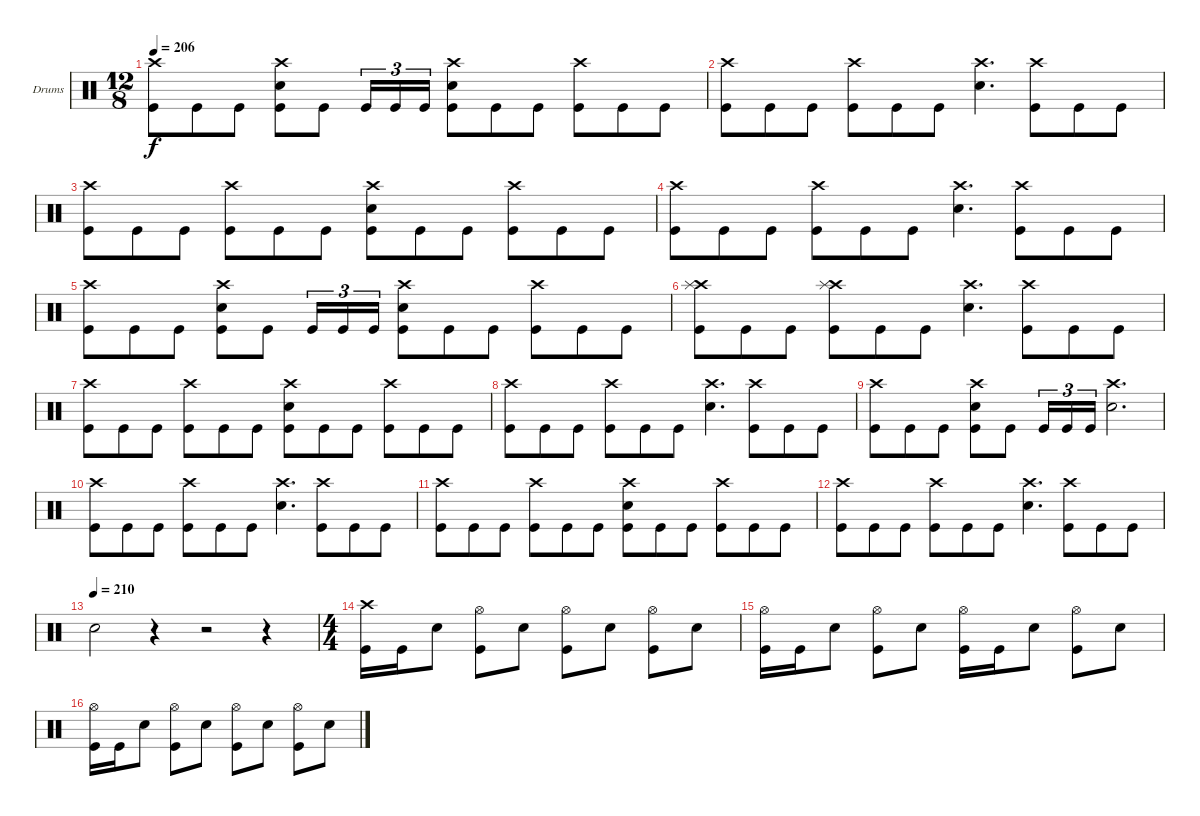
\bracketExtendMode groupsimilarinstruments
\firstSystemTrackNameOrientation horizontal
\otherSystemsTrackNameOrientation horizontal
\track ("Drumkit" "Drums") {instrument percussion}
\staff {score}
\articulation defaults
\ts (12 8)
\tempo 206
\clef neutral
\ks c
("Crash high (hit)" "Kick (hit)").8{dy f} "Kick (hit)".8 "Kick (hit)".8 ("Crash high (hit)" "Kick (hit)" "Snare (hit) 2").8 "Kick (hit)".8 "Kick (hit)".16{tu (3 2)} "Kick (hit)".16{tu (3 2)} "Kick (hit)".16{tu (3 2)} ("Crash high (hit)" "Kick (hit)" "Snare (hit) 2").8 "Kick (hit)".8 "Kick (hit)".8 ("Crash high (hit)" "Kick (hit)").8 "Kick (hit)".8 "Kick (hit)".8 |
("Crash high (hit)" "Kick (hit)").8 "Kick (hit)".8 "Kick (hit)".8 ("Crash high (hit)" "Kick (hit)").8 "Kick (hit)".8 "Kick (hit)".8 ("Crash high (hit)" "Snare (hit) 2").4{d} ("Crash high (hit)" "Kick (hit)").8 "Kick (hit)".8 "Kick (hit)".8 |
("Crash high (hit)" "Kick (hit)").8 "Kick (hit)".8 "Kick (hit)".8 ("Crash high (hit)" "Kick (hit)").8 "Kick (hit)".8 "Kick (hit)".8 ("Crash high (hit)" "Kick (hit)" "Snare (hit) 2").8 "Kick (hit)".8 "Kick (hit)".8 ("Crash high (hit)" "Kick (hit)").8 "Kick (hit)".8 "Kick (hit)".8 |
("Crash high (hit)" "Kick (hit)").8 "Kick (hit)".8 "Kick (hit)".8 ("Crash high (hit)" "Kick (hit)").8 "Kick (hit)".8 "Kick (hit)".8 ("Crash high (hit)" "Snare (hit) 2").4{d} ("Crash high (hit)" "Kick (hit)").8 "Kick (hit)".8 "Kick (hit)".8 |
("Crash high (hit)" "Kick (hit)").8 "Kick (hit)".8 "Kick (hit)".8 ("Crash high (hit)" "Kick (hit)" "Snare (hit) 2").8 "Kick (hit)".8 "Kick (hit)".16{tu (3 2)} "Kick (hit)".16{tu (3 2)} "Kick (hit)".16{tu (3 2)} ("Crash high (hit)" "Kick (hit)" "Snare (hit) 2").8 "Kick (hit)".8 "Kick (hit)".8 ("Crash high (hit)" "Kick (hit)").8 "Kick (hit)".8 "Kick (hit)".8 |
("Crash high (hit)" "Kick (hit)" "Splash (hit)").8 "Kick (hit)".8 "Kick (hit)".8 ("Crash high (hit)" "Kick (hit)" "Splash (hit)").8 "Kick (hit)".8 "Kick (hit)".8 ("Crash high (hit)" "Snare (hit) 2").4{d} ("Crash high (hit)" "Kick (hit)").8 "Kick (hit)".8 "Kick (hit)".8 |
("Crash high (hit)" "Kick (hit)").8 "Kick (hit)".8 "Kick (hit)".8 ("Crash high (hit)" "Kick (hit)").8 "Kick (hit)".8 "Kick (hit)".8 ("Crash high (hit)" "Kick (hit)" "Snare (hit) 2").8 "Kick (hit)".8 "Kick (hit)".8 ("Crash high (hit)" "Kick (hit)").8 "Kick (hit)".8 "Kick (hit)".8 |
("Crash high (hit)" "Kick (hit)").8 "Kick (hit)".8 "Kick (hit)".8 ("Crash high (hit)" "Kick (hit)").8 "Kick (hit)".8 "Kick (hit)".8 ("Crash high (hit)" "Snare (hit) 2").4{d} ("Crash high (hit)" "Kick (hit)").8 "Kick (hit)".8 "Kick (hit)".8 |
("Crash high (hit)" "Kick (hit)").8 "Kick (hit)".8 "Kick (hit)".8 ("Crash high (hit)" "Kick (hit)" "Snare (hit) 2").8 "Kick (hit)".8 "Kick (hit)".16{tu (3 2)} "Kick (hit)".16{tu (3 2)} "Kick (hit)".16{tu (3 2)} ("Crash high (hit)" "Snare (hit) 2").2{d} |
("Crash high (hit)" "Kick (hit)").8 "Kick (hit)".8 "Kick (hit)".8 ("Crash high (hit)" "Kick (hit)").8 "Kick (hit)".8 "Kick (hit)".8 ("Crash high (hit)" "Snare (hit) 2").4{d} ("Crash high (hit)" "Kick (hit)").8 "Kick (hit)".8 "Kick (hit)".8 |
("Crash high (hit)" "Kick (hit)").8 "Kick (hit)".8 "Kick (hit)".8 ("Crash high (hit)" "Kick (hit)").8 "Kick (hit)".8 "Kick (hit)".8 ("Crash high (hit)" "Kick (hit)" "Snare (hit) 2").8 "Kick (hit)".8 "Kick (hit)".8 ("Crash high (hit)" "Kick (hit)").8 "Kick (hit)".8 "Kick (hit)".8 |
("Crash high (hit)" "Kick (hit)").8 "Kick (hit)".8 "Kick (hit)".8 ("Crash high (hit)" "Kick (hit)").8 "Kick (hit)".8 "Kick (hit)".8 ("Crash high (hit)" "Snare (hit) 2").4{d} ("Crash high (hit)" "Kick (hit)").8 "Kick (hit)".8 "Kick (hit)".8 |
\tempo (210)
"Snare (hit) 2".2 r.4 r.2 r.4 |
\ts (4 4)
("Crash high (hit)" "Kick (hit)").16 "Kick (hit)".16 "Snare (hit) 2".8 ("Hi-Hat (open)" "Kick (hit)").8 "Snare (hit) 2".8 ("Hi-Hat (open)" "Kick (hit)").8 "Snare (hit) 2".8 ("Hi-Hat (open)" "Kick (hit)").8 "Snare (hit) 2".8 |
("Hi-Hat (open)" "Kick (hit)").16 "Kick (hit)".16 "Snare (hit) 2".8 ("Hi-Hat (open)" "Kick (hit)").8 "Snare (hit) 2".8 ("Hi-Hat (open)" "Kick (hit)").16 "Kick (hit)".16 "Snare (hit) 2".8 ("Hi-Hat (open)" "Kick (hit)").8 "Snare (hit) 2".8 |
("Hi-Hat (open)" "Kick (hit)").16 "Kick (hit)".16 "Snare (hit) 2".8 ("Hi-Hat (open)" "Kick (hit)").8 "Snare (hit) 2".8 ("Hi-Hat (open)" "Kick (hit)").8 "Snare (hit) 2".8 ("Hi-Hat (open)" "Kick (hit)").8 "Snare (hit) 2".8
